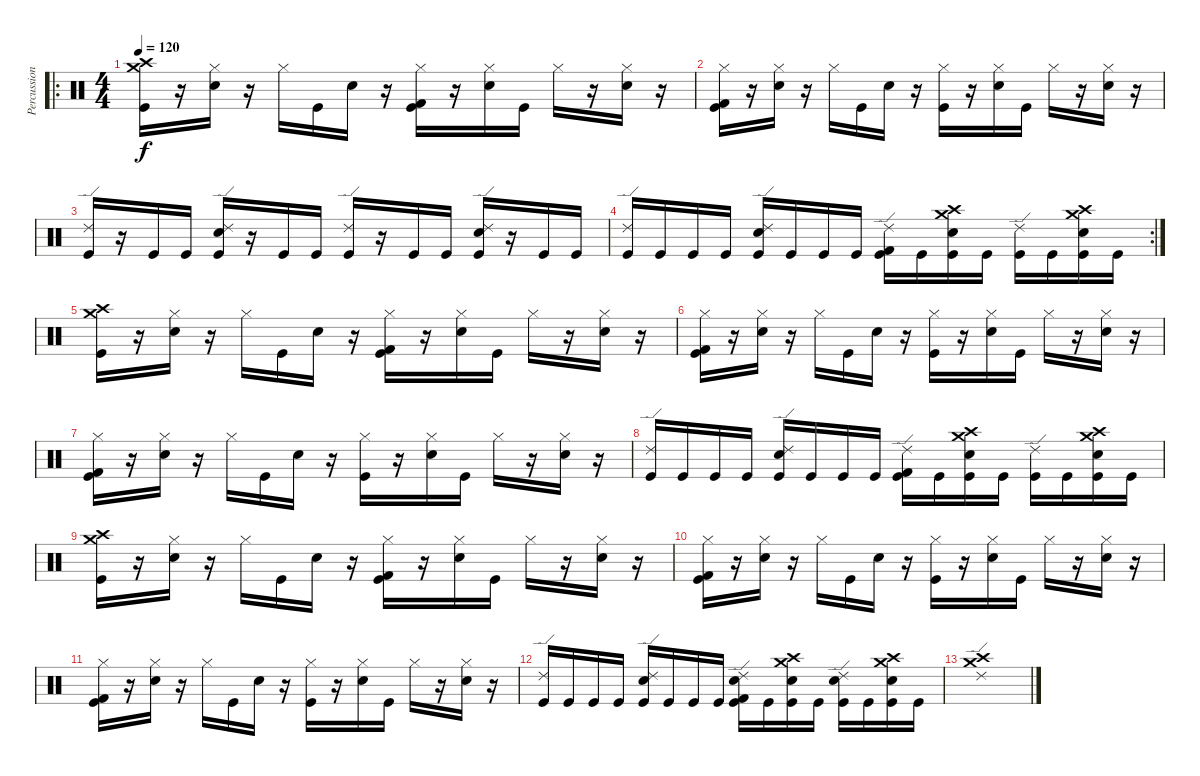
\track ("Percussion" "Percussion") {instrument percussion}
\staff {score}
\articulation defaults
\ro
\ts (4 4)
\tempo 120
\clef neutral
\ks c
("Crash medium (hit)" "Crash high (hit)" "Kick (hit)").16{dy f} r.16 ("Hi-Hat (closed)" "Snare (hit) 2").16 r.16 "Hi-Hat (closed)".16 "Kick (hit)".16 "Snare (hit) 2".16 r.16 ("Hi-Hat (closed)" "Kick (hit) 2" "Kick (hit)").16 r.16 ("Hi-Hat (closed)" "Snare (hit) 2").16 "Kick (hit)".16 "Hi-Hat (closed)".16 r.16 ("Hi-Hat (closed)" "Snare (hit) 2").16 r.16 |
("Hi-Hat (closed)" "Kick (hit) 2" "Kick (hit)").16 r.16 ("Hi-Hat (closed)" "Snare (hit) 2").16 r.16 "Hi-Hat (closed)".16 "Kick (hit)".16 "Snare (hit) 2".16 r.16 ("Hi-Hat (closed)" "Kick (hit)").16 r.16 ("Hi-Hat (closed)" "Snare (hit) 2").16 "Kick (hit)".16 "Hi-Hat (closed)".16 r.16 ("Hi-Hat (closed)" "Snare (hit) 2").16 r.16 |
("Ride (edge) 2" "Kick (hit)").16 r.16 "Kick (hit)".16 "Kick (hit)".16 ("Snare (hit) 2" "Ride (edge) 2" "Kick (hit)").16 r.16 "Kick (hit)".16 "Kick (hit)".16 ("Ride (edge) 2" "Kick (hit)").16 r.16 "Kick (hit)".16 "Kick (hit)".16 ("Snare (hit) 2" "Ride (edge) 2" "Kick (hit)").16 r.16 "Kick (hit)".16 "Kick (hit)".16 |
\rc 2
("Ride (edge) 2" "Kick (hit)").16 "Kick (hit)".16 "Kick (hit)".16 "Kick (hit)".16 ("Snare (hit) 2" "Ride (edge) 2" "Kick (hit)").16 "Kick (hit)".16 "Kick (hit)".16 "Kick (hit)".16 ("Ride (edge) 2" "Kick (hit) 2" "Kick (hit)").16 "Kick (hit)".16 ("Crash high (hit)" "Snare (hit) 2" "Crash medium (hit)" "Kick (hit)").16 "Kick (hit)".16 ("Ride (edge) 2" "Kick (hit)").16 "Kick (hit)".16 ("Snare (hit) 2" "Crash high (hit)" "Crash medium (hit)" "Kick (hit)").16 "Kick (hit)".16 |
("Crash medium (hit)" "Crash high (hit)" "Kick (hit)").16 r.16 ("Hi-Hat (closed)" "Snare (hit) 2").16 r.16 "Hi-Hat (closed)".16 "Kick (hit)".16 "Snare (hit) 2".16 r.16 ("Hi-Hat (closed)" "Kick (hit) 2" "Kick (hit)").16 r.16 ("Hi-Hat (closed)" "Snare (hit) 2").16 "Kick (hit)".16 "Hi-Hat (closed)".16 r.16 ("Hi-Hat (closed)" "Snare (hit) 2").16 r.16 |
("Hi-Hat (closed)" "Kick (hit) 2" "Kick (hit)").16 r.16 ("Hi-Hat (closed)" "Snare (hit) 2").16 r.16 "Hi-Hat (closed)".16 "Kick (hit)".16 "Snare (hit) 2".16 r.16 ("Hi-Hat (closed)" "Kick (hit)").16 r.16 ("Hi-Hat (closed)" "Snare (hit) 2").16 "Kick (hit)".16 "Hi-Hat (closed)".16 r.16 ("Hi-Hat (closed)" "Snare (hit) 2").16 r.16 |
("Hi-Hat (closed)" "Kick (hit) 2" "Kick (hit)").16 r.16 ("Hi-Hat (closed)" "Snare (hit) 2").16 r.16 "Hi-Hat (closed)".16 "Kick (hit)".16 "Snare (hit) 2".16 r.16 ("Hi-Hat (closed)" "Kick (hit)").16 r.16 ("Hi-Hat (closed)" "Snare (hit) 2").16 "Kick (hit)".16 "Hi-Hat (closed)".16 r.16 ("Hi-Hat (closed)" "Snare (hit) 2").16 r.16 |
("Ride (edge) 2" "Kick (hit)").16 "Kick (hit)".16 "Kick (hit)".16 "Kick (hit)".16 ("Snare (hit) 2" "Ride (edge) 2" "Kick (hit)").16 "Kick (hit)".16 "Kick (hit)".16 "Kick (hit)".16 ("Ride (edge) 2" "Kick (hit) 2" "Kick (hit)").16 "Kick (hit)".16 ("Crash high (hit)" "Snare (hit) 2" "Crash medium (hit)" "Kick (hit)").16 "Kick (hit)".16 ("Ride (edge) 2" "Kick (hit)").16 "Kick (hit)".16 ("Snare (hit) 2" "Crash high (hit)" "Crash medium (hit)" "Kick (hit)").16 "Kick (hit)".16 |
("Crash medium (hit)" "Crash high (hit)" "Kick (hit)").16 r.16 ("Hi-Hat (closed)" "Snare (hit) 2").16 r.16 "Hi-Hat (closed)".16 "Kick (hit)".16 "Snare (hit) 2".16 r.16 ("Hi-Hat (closed)" "Kick (hit) 2" "Kick (hit)").16 r.16 ("Hi-Hat (closed)" "Snare (hit) 2").16 "Kick (hit)".16 "Hi-Hat (closed)".16 r.16 ("Hi-Hat (closed)" "Snare (hit) 2").16 r.16 |
("Hi-Hat (closed)" "Kick (hit) 2" "Kick (hit)").16 r.16 ("Hi-Hat (closed)" "Snare (hit) 2").16 r.16 "Hi-Hat (closed)".16 "Kick (hit)".16 "Snare (hit) 2".16 r.16 ("Hi-Hat (closed)" "Kick (hit)").16 r.16 ("Hi-Hat (closed)" "Snare (hit) 2").16 "Kick (hit)".16 "Hi-Hat (closed)".16 r.16 ("Hi-Hat (closed)" "Snare (hit) 2").16 r.16 |
("Hi-Hat (closed)" "Kick (hit) 2" "Kick (hit)").16 r.16 ("Hi-Hat (closed)" "Snare (hit) 2").16 r.16 "Hi-Hat (closed)".16 "Kick (hit)".16 "Snare (hit) 2".16 r.16 ("Hi-Hat (closed)" "Kick (hit)").16 r.16 ("Hi-Hat (closed)" "Snare (hit) 2").16 "Kick (hit)".16 "Hi-Hat (closed)".16 r.16 ("Hi-Hat (closed)" "Snare (hit) 2").16 r.16 |
("Ride (edge) 2" "Kick (hit)").16 "Kick (hit)".16 "Kick (hit)".16 "Kick (hit)".16 ("Snare (hit) 2" "Ride (edge) 2" "Kick (hit)").16 "Kick (hit)".16 "Kick (hit)".16 "Kick (hit)".16 ("Ride (edge) 2" "Kick (hit) 2" "Kick (hit)" "Snare (hit) 2").16 "Kick (hit)".16 ("Crash high (hit)" "Snare (hit) 2" "Crash medium (hit)" "Kick (hit)").16 "Kick (hit)".16 ("Ride (edge) 2" "Kick (hit)" "Snare (hit) 2").16 "Kick (hit)".16 ("Snare (hit) 2" "Crash high (hit)" "Crash medium (hit)" "Kick (hit)").16 "Kick (hit)".16 |
("Ride (edge) 2" "Crash high (hit)" "Crash medium (hit)").1
